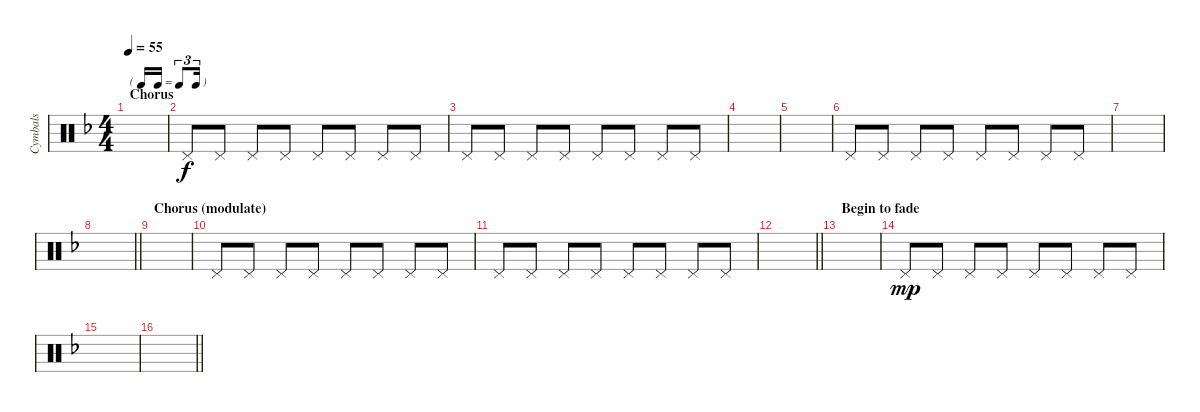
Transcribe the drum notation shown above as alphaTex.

\track ("Cymbals" "Cymbals") {instrument percussion}
\staff {score}
\articulation defaults
\ts (4 4)
\tf triplet16th
\section ("" "Chorus")
\tempo 55
\clef neutral
\ks dminor
|
"Pedal Hi-Hat (hit)".8 "Pedal Hi-Hat (hit)".8 "Pedal Hi-Hat (hit)".8 "Pedal Hi-Hat (hit)".8 "Pedal Hi-Hat (hit)".8 "Pedal Hi-Hat (hit)".8 "Pedal Hi-Hat (hit)".8 "Pedal Hi-Hat (hit)".8 |
"Pedal Hi-Hat (hit)".8 "Pedal Hi-Hat (hit)".8 "Pedal Hi-Hat (hit)".8 "Pedal Hi-Hat (hit)".8 "Pedal Hi-Hat (hit)".8 "Pedal Hi-Hat (hit)".8 "Pedal Hi-Hat (hit)".8 "Pedal Hi-Hat (hit)".8 |
|
|
"Pedal Hi-Hat (hit)".8 "Pedal Hi-Hat (hit)".8 "Pedal Hi-Hat (hit)".8 "Pedal Hi-Hat (hit)".8 "Pedal Hi-Hat (hit)".8 "Pedal Hi-Hat (hit)".8 "Pedal Hi-Hat (hit)".8 "Pedal Hi-Hat (hit)".8 |
|
\barLineRight lightlight
|
\section ("" "Chorus (modulate)")
|
"Pedal Hi-Hat (hit)".8 "Pedal Hi-Hat (hit)".8 "Pedal Hi-Hat (hit)".8 "Pedal Hi-Hat (hit)".8 "Pedal Hi-Hat (hit)".8 "Pedal Hi-Hat (hit)".8 "Pedal Hi-Hat (hit)".8 "Pedal Hi-Hat (hit)".8 |
"Pedal Hi-Hat (hit)".8 "Pedal Hi-Hat (hit)".8 "Pedal Hi-Hat (hit)".8 "Pedal Hi-Hat (hit)".8 "Pedal Hi-Hat (hit)".8 "Pedal Hi-Hat (hit)".8 "Pedal Hi-Hat (hit)".8 "Pedal Hi-Hat (hit)".8 |
\barLineRight lightlight
|
\section ("" "Begin to fade")
|
"Pedal Hi-Hat (hit)".8{dy mp} "Pedal Hi-Hat (hit)".8 "Pedal Hi-Hat (hit)".8 "Pedal Hi-Hat (hit)".8 "Pedal Hi-Hat (hit)".8 "Pedal Hi-Hat (hit)".8 "Pedal Hi-Hat (hit)".8 "Pedal Hi-Hat (hit)".8 |
|
\barLineRight lightlight
